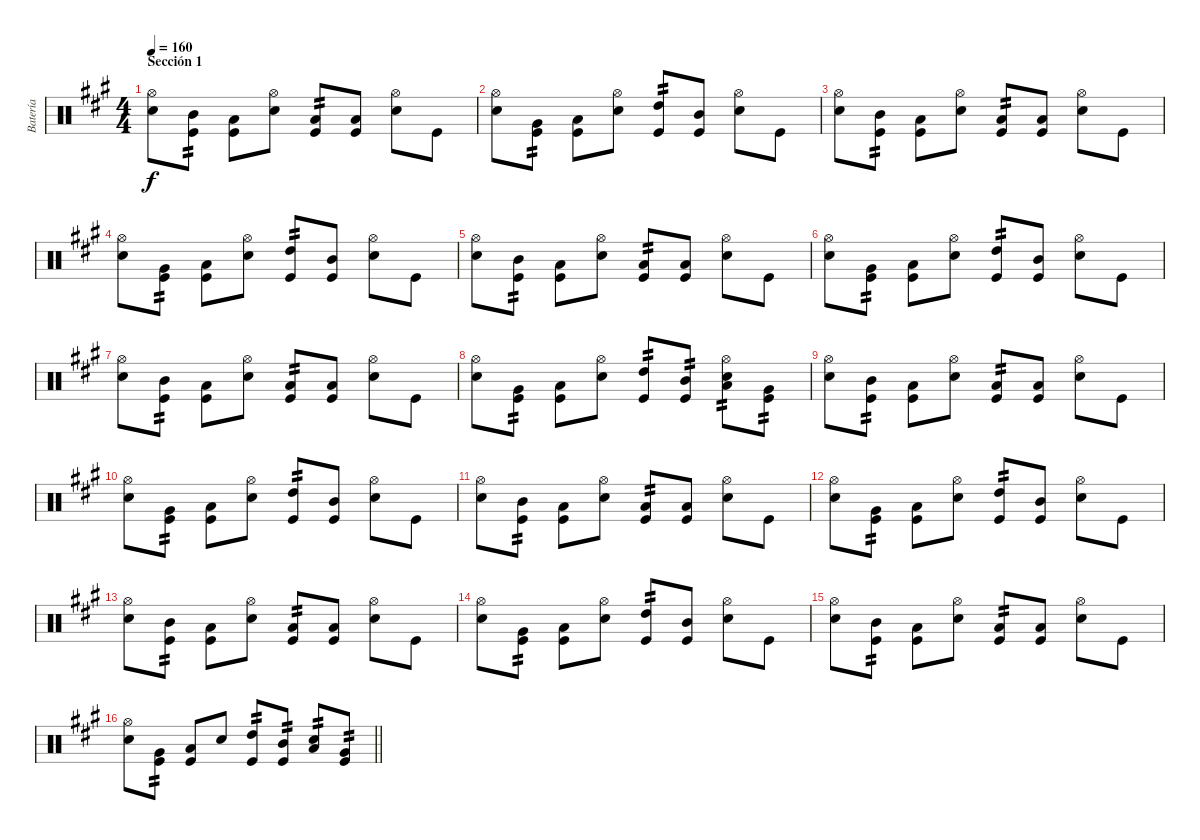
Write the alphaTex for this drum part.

\track ("Batería" "Batería") {instrument percussion}
\staff {score}
\articulation defaults
\ts (4 4)
\section ("" "Sección 1")
\tempo 160
\clef neutral
\ks a
("Hi-Hat (open)" "Electric Snare (hit)").8{dy f} ("Mid Tom (hit)" "Kick (hit)").8{tp 2} ("Low Tom (hit)" "Kick (hit)").8 ("Hi-Hat (open)" "Electric Snare (hit)").8 ("Low Tom (hit)" "Kick (hit)").8{tp 2} ("Low Tom (hit)" "Kick (hit)").8 ("Hi-Hat (open)" "Electric Snare (hit)").8 "Kick (hit)".8 |
("Hi-Hat (open)" "Electric Snare (hit)").8 ("Very Low Tom (hit)" "Kick (hit)").8{tp 2} ("Low Floor Tom (hit)" "Kick (hit)").8 ("Hi-Hat (open)" "Electric Snare (hit)").8 ("High Tom (hit)" "Kick (hit)").8{tp 2} ("Mid Tom (hit)" "Kick (hit)").8 ("Hi-Hat (open)" "Electric Snare (hit)").8 "Kick (hit)".8 |
("Hi-Hat (open)" "Electric Snare (hit)").8 ("Mid Tom (hit)" "Kick (hit)").8{tp 2} ("Low Tom (hit)" "Kick (hit)").8 ("Hi-Hat (open)" "Electric Snare (hit)").8 ("Low Tom (hit)" "Kick (hit)").8{tp 2} ("Low Tom (hit)" "Kick (hit)").8 ("Hi-Hat (open)" "Electric Snare (hit)").8 "Kick (hit)".8 |
("Hi-Hat (open)" "Electric Snare (hit)").8 ("Very Low Tom (hit)" "Kick (hit)").8{tp 2} ("Low Floor Tom (hit)" "Kick (hit)").8 ("Hi-Hat (open)" "Electric Snare (hit)").8 ("High Tom (hit)" "Kick (hit)").8{tp 2} ("Mid Tom (hit)" "Kick (hit)").8 ("Hi-Hat (open)" "Electric Snare (hit)").8 "Kick (hit)".8 |
("Hi-Hat (open)" "Electric Snare (hit)").8 ("Mid Tom (hit)" "Kick (hit)").8{tp 2} ("Low Tom (hit)" "Kick (hit)").8 ("Hi-Hat (open)" "Electric Snare (hit)").8 ("Low Tom (hit)" "Kick (hit)").8{tp 2} ("Low Tom (hit)" "Kick (hit)").8 ("Hi-Hat (open)" "Electric Snare (hit)").8 "Kick (hit)".8 |
("Hi-Hat (open)" "Electric Snare (hit)").8 ("Very Low Tom (hit)" "Kick (hit)").8{tp 2} ("Low Floor Tom (hit)" "Kick (hit)").8 ("Hi-Hat (open)" "Electric Snare (hit)").8 ("High Tom (hit)" "Kick (hit)").8{tp 2} ("Mid Tom (hit)" "Kick (hit)").8 ("Hi-Hat (open)" "Electric Snare (hit)").8 "Kick (hit)".8 |
("Hi-Hat (open)" "Electric Snare (hit)").8 ("Mid Tom (hit)" "Kick (hit)").8{tp 2} ("Low Tom (hit)" "Kick (hit)").8 ("Hi-Hat (open)" "Electric Snare (hit)").8 ("Low Tom (hit)" "Kick (hit)").8{tp 2} ("Low Tom (hit)" "Kick (hit)").8 ("Hi-Hat (open)" "Electric Snare (hit)").8 "Kick (hit)".8 |
("Hi-Hat (open)" "Electric Snare (hit)").8 ("Very Low Tom (hit)" "Kick (hit)").8{tp 2} ("Low Floor Tom (hit)" "Kick (hit)").8 ("Hi-Hat (open)" "Electric Snare (hit)").8 ("High Tom (hit)" "Kick (hit)").8{tp 2} ("Mid Tom (hit)" "Kick (hit)").8{tp 2} ("Hi-Hat (open)" "Low Tom (hit)" "Electric Snare (hit)").8{tp 2} ("Very Low Tom (hit)" "Kick (hit)").8{tp 2} |
("Hi-Hat (open)" "Electric Snare (hit)").8 ("Mid Tom (hit)" "Kick (hit)").8{tp 2} ("Low Tom (hit)" "Kick (hit)").8 ("Hi-Hat (open)" "Electric Snare (hit)").8 ("Low Tom (hit)" "Kick (hit)").8{tp 2} ("Low Tom (hit)" "Kick (hit)").8 ("Hi-Hat (open)" "Electric Snare (hit)").8 "Kick (hit)".8 |
("Hi-Hat (open)" "Electric Snare (hit)").8 ("Very Low Tom (hit)" "Kick (hit)").8{tp 2} ("Low Floor Tom (hit)" "Kick (hit)").8 ("Hi-Hat (open)" "Electric Snare (hit)").8 ("High Tom (hit)" "Kick (hit)").8{tp 2} ("Mid Tom (hit)" "Kick (hit)").8 ("Hi-Hat (open)" "Electric Snare (hit)").8 "Kick (hit)".8 |
("Hi-Hat (open)" "Electric Snare (hit)").8 ("Mid Tom (hit)" "Kick (hit)").8{tp 2} ("Low Tom (hit)" "Kick (hit)").8 ("Hi-Hat (open)" "Electric Snare (hit)").8 ("Low Tom (hit)" "Kick (hit)").8{tp 2} ("Low Tom (hit)" "Kick (hit)").8 ("Hi-Hat (open)" "Electric Snare (hit)").8 "Kick (hit)".8 |
("Hi-Hat (open)" "Electric Snare (hit)").8 ("Very Low Tom (hit)" "Kick (hit)").8{tp 2} ("Low Floor Tom (hit)" "Kick (hit)").8 ("Hi-Hat (open)" "Electric Snare (hit)").8 ("High Tom (hit)" "Kick (hit)").8{tp 2} ("Mid Tom (hit)" "Kick (hit)").8 ("Hi-Hat (open)" "Electric Snare (hit)").8 "Kick (hit)".8 |
("Hi-Hat (open)" "Electric Snare (hit)").8 ("Mid Tom (hit)" "Kick (hit)").8{tp 2} ("Low Tom (hit)" "Kick (hit)").8 ("Hi-Hat (open)" "Electric Snare (hit)").8 ("Low Tom (hit)" "Kick (hit)").8{tp 2} ("Low Tom (hit)" "Kick (hit)").8 ("Hi-Hat (open)" "Electric Snare (hit)").8 "Kick (hit)".8 |
("Hi-Hat (open)" "Electric Snare (hit)").8 ("Very Low Tom (hit)" "Kick (hit)").8{tp 2} ("Low Floor Tom (hit)" "Kick (hit)").8 ("Hi-Hat (open)" "Electric Snare (hit)").8 ("High Tom (hit)" "Kick (hit)").8{tp 2} ("Mid Tom (hit)" "Kick (hit)").8 ("Hi-Hat (open)" "Electric Snare (hit)").8 "Kick (hit)".8 |
("Hi-Hat (open)" "Electric Snare (hit)").8 ("Mid Tom (hit)" "Kick (hit)").8{tp 2} ("Low Tom (hit)" "Kick (hit)").8 ("Hi-Hat (open)" "Electric Snare (hit)").8 ("Low Tom (hit)" "Kick (hit)").8{tp 2} ("Low Tom (hit)" "Kick (hit)").8 ("Hi-Hat (open)" "Electric Snare (hit)").8 "Kick (hit)".8 |
\barLineRight lightlight
("Hi-Hat (open)" "Electric Snare (hit)").8 ("Very Low Tom (hit)" "Kick (hit)").8{tp 2} ("Low Floor Tom (hit)" "Kick (hit)").8 "Electric Snare (hit)".8 ("High Tom (hit)" "Kick (hit)").8{tp 2} ("Mid Tom (hit)" "Kick (hit)").8{tp 2} ("Low Tom (hit)" "Electric Snare (hit)").8{tp 2} ("Very Low Tom (hit)" "Kick (hit)").8{tp 2}
